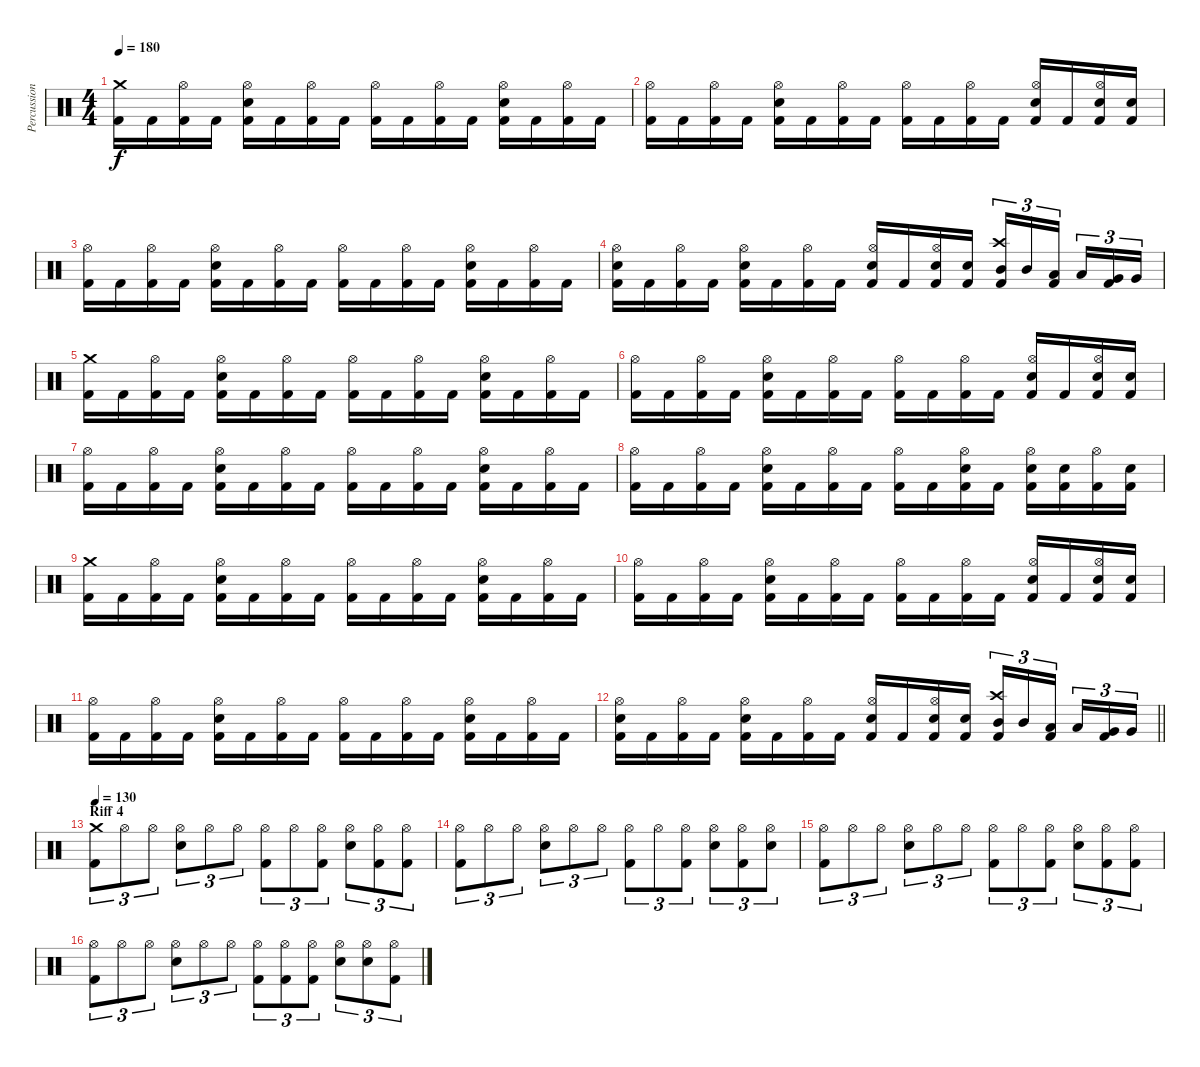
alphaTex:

\track ("Percussion" "Percussion") {instrument percussion}
\staff {score}
\articulation defaults
\ts (4 4)
\tempo 180
\clef neutral
\ks c
("Crash medium (hit)" "Kick (hit) 2").16{dy f} "Kick (hit) 2".16 ("Hi-Hat (open)" "Kick (hit) 2").16 "Kick (hit) 2".16 ("Kick (hit) 2" "Hi-Hat (open)" "Snare (hit) 2").16 "Kick (hit) 2".16 ("Hi-Hat (open)" "Kick (hit) 2").16 "Kick (hit) 2".16 ("Hi-Hat (open)" "Kick (hit) 2").16 "Kick (hit) 2".16 ("Hi-Hat (open)" "Kick (hit) 2").16 "Kick (hit) 2".16 ("Kick (hit) 2" "Hi-Hat (open)" "Snare (hit) 2").16 "Kick (hit) 2".16 ("Hi-Hat (open)" "Kick (hit) 2").16 "Kick (hit) 2".16 |
("Hi-Hat (open)" "Kick (hit) 2").16 "Kick (hit) 2".16 ("Hi-Hat (open)" "Kick (hit) 2").16 "Kick (hit) 2".16 ("Kick (hit) 2" "Hi-Hat (open)" "Snare (hit) 2").16 "Kick (hit) 2".16 ("Hi-Hat (open)" "Kick (hit) 2").16 "Kick (hit) 2".16 ("Hi-Hat (open)" "Kick (hit) 2").16 "Kick (hit) 2".16 ("Hi-Hat (open)" "Kick (hit) 2").16 "Kick (hit) 2".16 ("Kick (hit) 2" "Hi-Hat (open)" "Snare (hit) 2").16 "Kick (hit) 2".16 ("Kick (hit) 2" "Hi-Hat (open)" "Snare (hit) 2").16 ("Kick (hit) 2" "Snare (hit) 2").16 |
("Hi-Hat (open)" "Kick (hit) 2").16 "Kick (hit) 2".16 ("Hi-Hat (open)" "Kick (hit) 2").16 "Kick (hit) 2".16 ("Kick (hit) 2" "Hi-Hat (open)" "Snare (hit) 2").16 "Kick (hit) 2".16 ("Hi-Hat (open)" "Kick (hit) 2").16 "Kick (hit) 2".16 ("Hi-Hat (open)" "Kick (hit) 2").16 "Kick (hit) 2".16 ("Hi-Hat (open)" "Kick (hit) 2").16 "Kick (hit) 2".16 ("Kick (hit) 2" "Hi-Hat (open)" "Snare (hit) 2").16 "Kick (hit) 2".16 ("Hi-Hat (open)" "Kick (hit) 2").16 "Kick (hit) 2".16 |
("Kick (hit) 2" "Hi-Hat (open)" "Snare (hit) 2").16 "Kick (hit) 2".16 ("Hi-Hat (open)" "Kick (hit) 2").16 "Kick (hit) 2".16 ("Kick (hit) 2" "Hi-Hat (open)" "Snare (hit) 2").16 "Kick (hit) 2".16 ("Hi-Hat (open)" "Kick (hit) 2").16 "Kick (hit) 2".16 ("Kick (hit) 2" "Hi-Hat (open)" "Snare (hit) 2").16 "Kick (hit) 2".16 ("Kick (hit) 2" "Hi-Hat (open)" "Snare (hit) 2").16 ("Kick (hit) 2" "Snare (hit) 2").16 ("Kick (hit) 2" "Crash high (hit)" "Mid Tom (hit)").16{tu (3 2)} "Mid Tom (hit)".16{tu (3 2)} ("Kick (hit) 2" "Low Tom (hit)").16{tu (3 2)} "Low Tom (hit)".16{tu (3 2)} ("Kick (hit) 2" "Very Low Tom (hit)").16{tu (3 2)} "Very Low Tom (hit)".16{tu (3 2)} |
("Crash medium (hit)" "Kick (hit) 2").16 "Kick (hit) 2".16 ("Hi-Hat (open)" "Kick (hit) 2").16 "Kick (hit) 2".16 ("Kick (hit) 2" "Hi-Hat (open)" "Snare (hit) 2").16 "Kick (hit) 2".16 ("Hi-Hat (open)" "Kick (hit) 2").16 "Kick (hit) 2".16 ("Hi-Hat (open)" "Kick (hit) 2").16 "Kick (hit) 2".16 ("Hi-Hat (open)" "Kick (hit) 2").16 "Kick (hit) 2".16 ("Kick (hit) 2" "Hi-Hat (open)" "Snare (hit) 2").16 "Kick (hit) 2".16 ("Hi-Hat (open)" "Kick (hit) 2").16 "Kick (hit) 2".16 |
("Hi-Hat (open)" "Kick (hit) 2").16 "Kick (hit) 2".16 ("Hi-Hat (open)" "Kick (hit) 2").16 "Kick (hit) 2".16 ("Kick (hit) 2" "Hi-Hat (open)" "Snare (hit) 2").16 "Kick (hit) 2".16 ("Hi-Hat (open)" "Kick (hit) 2").16 "Kick (hit) 2".16 ("Hi-Hat (open)" "Kick (hit) 2").16 "Kick (hit) 2".16 ("Hi-Hat (open)" "Kick (hit) 2").16 "Kick (hit) 2".16 ("Kick (hit) 2" "Hi-Hat (open)" "Snare (hit) 2").16 "Kick (hit) 2".16 ("Kick (hit) 2" "Hi-Hat (open)" "Snare (hit) 2").16 ("Kick (hit) 2" "Snare (hit) 2").16 |
("Hi-Hat (open)" "Kick (hit) 2").16 "Kick (hit) 2".16 ("Hi-Hat (open)" "Kick (hit) 2").16 "Kick (hit) 2".16 ("Kick (hit) 2" "Hi-Hat (open)" "Snare (hit) 2").16 "Kick (hit) 2".16 ("Hi-Hat (open)" "Kick (hit) 2").16 "Kick (hit) 2".16 ("Hi-Hat (open)" "Kick (hit) 2").16 "Kick (hit) 2".16 ("Hi-Hat (open)" "Kick (hit) 2").16 "Kick (hit) 2".16 ("Kick (hit) 2" "Hi-Hat (open)" "Snare (hit) 2").16 "Kick (hit) 2".16 ("Hi-Hat (open)" "Kick (hit) 2").16 "Kick (hit) 2".16 |
("Hi-Hat (open)" "Kick (hit) 2").16 "Kick (hit) 2".16 ("Hi-Hat (open)" "Kick (hit) 2").16 "Kick (hit) 2".16 ("Kick (hit) 2" "Hi-Hat (open)" "Snare (hit) 2").16 "Kick (hit) 2".16 ("Hi-Hat (open)" "Kick (hit) 2").16 "Kick (hit) 2".16 ("Hi-Hat (open)" "Kick (hit) 2").16 "Kick (hit) 2".16 ("Kick (hit) 2" "Hi-Hat (open)" "Snare (hit) 2").16 "Kick (hit) 2".16 ("Kick (hit) 2" "Hi-Hat (open)" "Snare (hit) 2").16 ("Kick (hit) 2" "Snare (hit) 2").16 ("Hi-Hat (open)" "Kick (hit) 2").16 ("Kick (hit) 2" "Snare (hit) 2").16 |
("Crash medium (hit)" "Kick (hit) 2").16 "Kick (hit) 2".16 ("Hi-Hat (open)" "Kick (hit) 2").16 "Kick (hit) 2".16 ("Kick (hit) 2" "Hi-Hat (open)" "Snare (hit) 2").16 "Kick (hit) 2".16 ("Hi-Hat (open)" "Kick (hit) 2").16 "Kick (hit) 2".16 ("Hi-Hat (open)" "Kick (hit) 2").16 "Kick (hit) 2".16 ("Hi-Hat (open)" "Kick (hit) 2").16 "Kick (hit) 2".16 ("Kick (hit) 2" "Hi-Hat (open)" "Snare (hit) 2").16 "Kick (hit) 2".16 ("Hi-Hat (open)" "Kick (hit) 2").16 "Kick (hit) 2".16 |
("Hi-Hat (open)" "Kick (hit) 2").16 "Kick (hit) 2".16 ("Hi-Hat (open)" "Kick (hit) 2").16 "Kick (hit) 2".16 ("Kick (hit) 2" "Hi-Hat (open)" "Snare (hit) 2").16 "Kick (hit) 2".16 ("Hi-Hat (open)" "Kick (hit) 2").16 "Kick (hit) 2".16 ("Hi-Hat (open)" "Kick (hit) 2").16 "Kick (hit) 2".16 ("Hi-Hat (open)" "Kick (hit) 2").16 "Kick (hit) 2".16 ("Kick (hit) 2" "Hi-Hat (open)" "Snare (hit) 2").16 "Kick (hit) 2".16 ("Kick (hit) 2" "Hi-Hat (open)" "Snare (hit) 2").16 ("Kick (hit) 2" "Snare (hit) 2").16 |
("Hi-Hat (open)" "Kick (hit) 2").16 "Kick (hit) 2".16 ("Hi-Hat (open)" "Kick (hit) 2").16 "Kick (hit) 2".16 ("Kick (hit) 2" "Hi-Hat (open)" "Snare (hit) 2").16 "Kick (hit) 2".16 ("Hi-Hat (open)" "Kick (hit) 2").16 "Kick (hit) 2".16 ("Hi-Hat (open)" "Kick (hit) 2").16 "Kick (hit) 2".16 ("Hi-Hat (open)" "Kick (hit) 2").16 "Kick (hit) 2".16 ("Kick (hit) 2" "Hi-Hat (open)" "Snare (hit) 2").16 "Kick (hit) 2".16 ("Hi-Hat (open)" "Kick (hit) 2").16 "Kick (hit) 2".16 |
\barLineRight lightlight
("Kick (hit) 2" "Hi-Hat (open)" "Snare (hit) 2").16 "Kick (hit) 2".16 ("Hi-Hat (open)" "Kick (hit) 2").16 "Kick (hit) 2".16 ("Kick (hit) 2" "Hi-Hat (open)" "Snare (hit) 2").16 "Kick (hit) 2".16 ("Hi-Hat (open)" "Kick (hit) 2").16 "Kick (hit) 2".16 ("Kick (hit) 2" "Hi-Hat (open)" "Snare (hit) 2").16 "Kick (hit) 2".16 ("Kick (hit) 2" "Hi-Hat (open)" "Snare (hit) 2").16 ("Kick (hit) 2" "Snare (hit) 2").16 ("Kick (hit) 2" "Crash high (hit)" "Mid Tom (hit)").16{tu (3 2)} "Mid Tom (hit)".16{tu (3 2)} ("Kick (hit) 2" "Low Tom (hit)").16{tu (3 2)} "Low Tom (hit)".16{tu (3 2)} ("Kick (hit) 2" "Very Low Tom (hit)").16{tu (3 2)} "Very Low Tom (hit)".16{tu (3 2)} |
\section ("" "Riff 4")
\tempo 130
("Crash medium (hit)" "Kick (hit) 2").8{tu (3 2)} "Hi-Hat (open)".8{tu (3 2)} "Hi-Hat (open)".8{tu (3 2)} ("Hi-Hat (open)" "Snare (hit) 2").8{tu (3 2)} "Hi-Hat (open)".8{tu (3 2)} "Hi-Hat (open)".8{tu (3 2)} ("Hi-Hat (open)" "Kick (hit) 2").8{tu (3 2)} "Hi-Hat (open)".8{tu (3 2)} ("Hi-Hat (open)" "Kick (hit) 2").8{tu (3 2)} ("Hi-Hat (open)" "Snare (hit) 2").8{tu (3 2)} ("Hi-Hat (open)" "Kick (hit) 2").8{tu (3 2)} ("Hi-Hat (open)" "Kick (hit) 2").8{tu (3 2)} |
("Hi-Hat (open)" "Kick (hit) 2").8{tu (3 2)} "Hi-Hat (open)".8{tu (3 2)} "Hi-Hat (open)".8{tu (3 2)} ("Hi-Hat (open)" "Snare (hit) 2").8{tu (3 2)} "Hi-Hat (open)".8{tu (3 2)} "Hi-Hat (open)".8{tu (3 2)} ("Hi-Hat (open)" "Kick (hit) 2").8{tu (3 2)} "Hi-Hat (open)".8{tu (3 2)} ("Hi-Hat (open)" "Kick (hit) 2").8{tu (3 2)} ("Hi-Hat (open)" "Snare (hit) 2").8{tu (3 2)} ("Hi-Hat (open)" "Kick (hit) 2").8{tu (3 2)} ("Hi-Hat (open)" "Snare (hit) 2").8{tu (3 2)} |
("Hi-Hat (open)" "Kick (hit) 2").8{tu (3 2)} "Hi-Hat (open)".8{tu (3 2)} "Hi-Hat (open)".8{tu (3 2)} ("Hi-Hat (open)" "Snare (hit) 2").8{tu (3 2)} "Hi-Hat (open)".8{tu (3 2)} "Hi-Hat (open)".8{tu (3 2)} ("Hi-Hat (open)" "Kick (hit) 2").8{tu (3 2)} "Hi-Hat (open)".8{tu (3 2)} ("Hi-Hat (open)" "Kick (hit) 2").8{tu (3 2)} ("Hi-Hat (open)" "Snare (hit) 2").8{tu (3 2)} ("Hi-Hat (open)" "Kick (hit) 2").8{tu (3 2)} ("Hi-Hat (open)" "Kick (hit) 2").8{tu (3 2)} |
("Hi-Hat (open)" "Kick (hit) 2").8{tu (3 2)} "Hi-Hat (open)".8{tu (3 2)} "Hi-Hat (open)".8{tu (3 2)} ("Hi-Hat (open)" "Snare (hit) 2").8{tu (3 2)} "Hi-Hat (open)".8{tu (3 2)} "Hi-Hat (open)".8{tu (3 2)} ("Hi-Hat (open)" "Kick (hit) 2").8{tu (3 2)} ("Hi-Hat (open)" "Kick (hit) 2").8{tu (3 2)} ("Hi-Hat (open)" "Kick (hit) 2").8{tu (3 2)} ("Hi-Hat (open)" "Snare (hit) 2").8{tu (3 2)} ("Hi-Hat (open)" "Snare (hit) 2").8{tu (3 2)} ("Hi-Hat (open)" "Kick (hit) 2").8{tu (3 2)}
